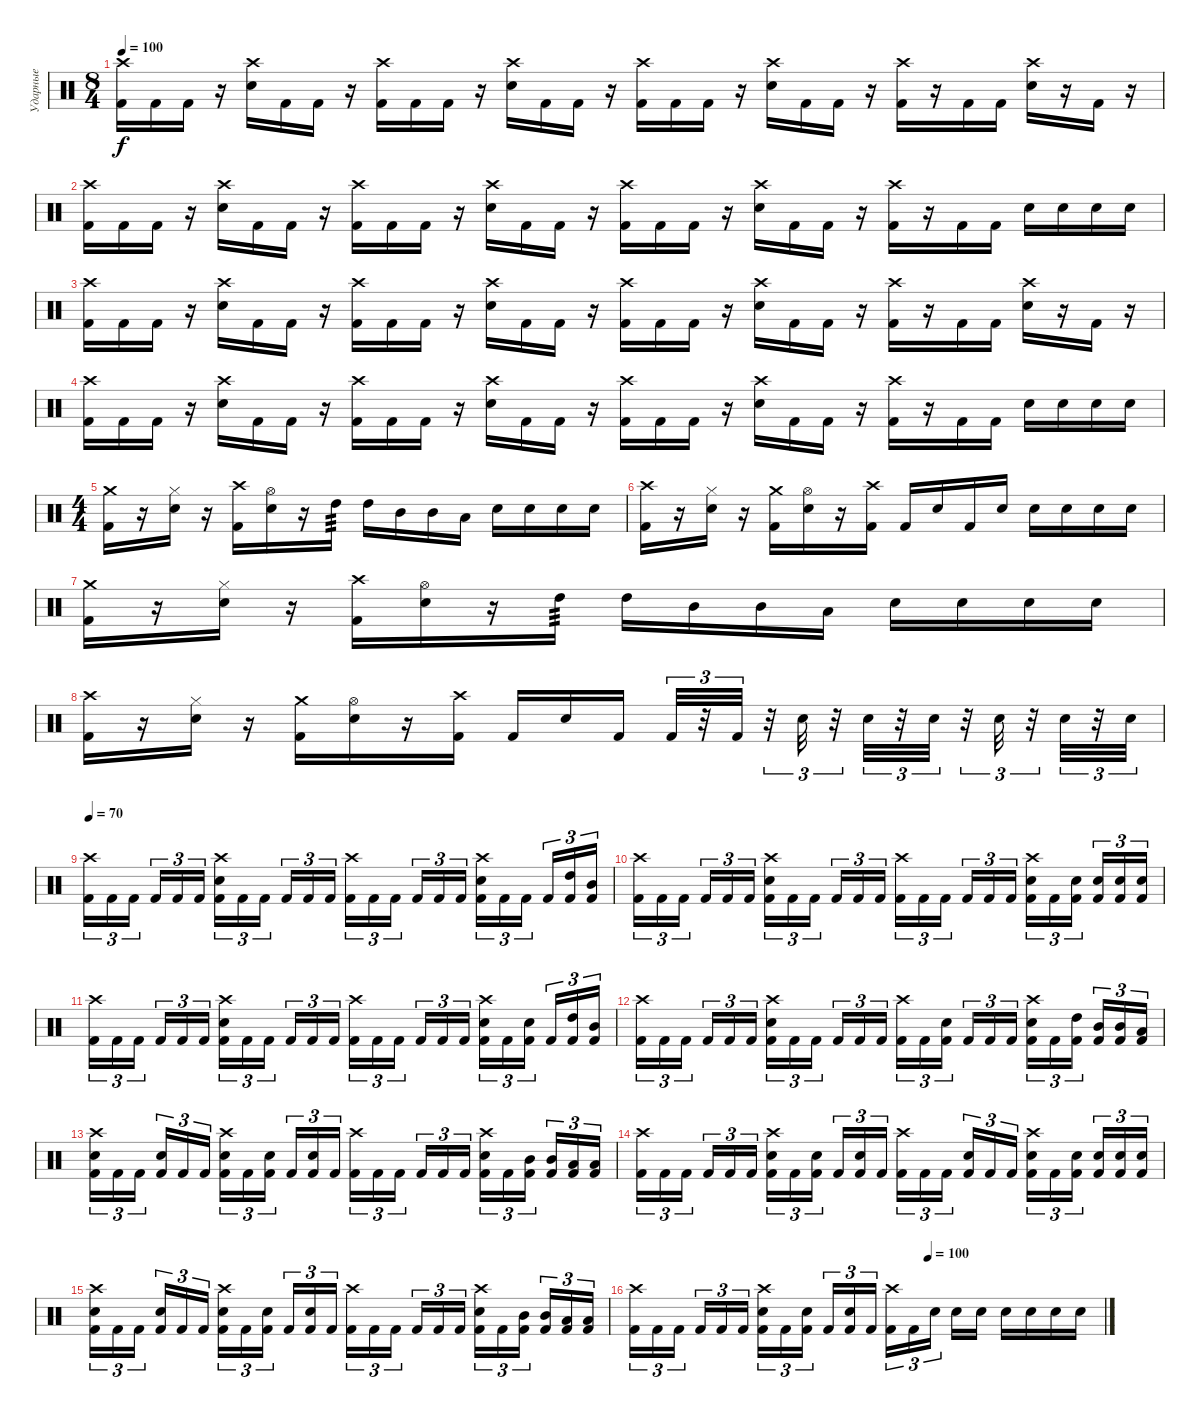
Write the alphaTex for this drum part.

\track ("Ударные" "Ударные") {instrument percussion}
\staff {score}
\articulation defaults
\ts (8 4)
\tempo 100
\clef neutral
\ks c
("Crash high (hit)" "Kick (hit) 2").16{dy f} "Kick (hit) 2".16 "Kick (hit) 2".16 r.16 ("Crash high (hit)" "Electric Snare (hit)").16 "Kick (hit) 2".16 "Kick (hit) 2".16 r.16 ("Crash high (hit)" "Kick (hit) 2").16 "Kick (hit) 2".16 "Kick (hit) 2".16 r.16 ("Crash high (hit)" "Electric Snare (hit)").16 "Kick (hit) 2".16 "Kick (hit) 2".16 r.16 ("Crash high (hit)" "Kick (hit) 2").16 "Kick (hit) 2".16 "Kick (hit) 2".16 r.16 ("Crash high (hit)" "Electric Snare (hit)").16 "Kick (hit) 2".16 "Kick (hit) 2".16 r.16 ("Crash high (hit)" "Kick (hit) 2").16 r.16 "Kick (hit) 2".16 "Kick (hit) 2".16 ("Crash high (hit)" "Electric Snare (hit)").16 r.16 "Kick (hit) 2".16 r.16 |
("Crash high (hit)" "Kick (hit) 2").16 "Kick (hit) 2".16 "Kick (hit) 2".16 r.16 ("Crash high (hit)" "Electric Snare (hit)").16 "Kick (hit) 2".16 "Kick (hit) 2".16 r.16 ("Crash high (hit)" "Kick (hit) 2").16 "Kick (hit) 2".16 "Kick (hit) 2".16 r.16 ("Crash high (hit)" "Electric Snare (hit)").16 "Kick (hit) 2".16 "Kick (hit) 2".16 r.16 ("Crash high (hit)" "Kick (hit) 2").16 "Kick (hit) 2".16 "Kick (hit) 2".16 r.16 ("Crash high (hit)" "Electric Snare (hit)").16 "Kick (hit) 2".16 "Kick (hit) 2".16 r.16 ("Crash high (hit)" "Kick (hit) 2").16 r.16 "Kick (hit) 2".16 "Kick (hit) 2".16 "Electric Snare (hit)".16 "Electric Snare (hit)".16 "Electric Snare (hit)".16 "Electric Snare (hit)".16 |
("Crash high (hit)" "Kick (hit) 2").16 "Kick (hit) 2".16 "Kick (hit) 2".16 r.16 ("Crash high (hit)" "Electric Snare (hit)").16 "Kick (hit) 2".16 "Kick (hit) 2".16 r.16 ("Crash high (hit)" "Kick (hit) 2").16 "Kick (hit) 2".16 "Kick (hit) 2".16 r.16 ("Crash high (hit)" "Electric Snare (hit)").16 "Kick (hit) 2".16 "Kick (hit) 2".16 r.16 ("Crash high (hit)" "Kick (hit) 2").16 "Kick (hit) 2".16 "Kick (hit) 2".16 r.16 ("Crash high (hit)" "Electric Snare (hit)").16 "Kick (hit) 2".16 "Kick (hit) 2".16 r.16 ("Crash high (hit)" "Kick (hit) 2").16 r.16 "Kick (hit) 2".16 "Kick (hit) 2".16 ("Crash high (hit)" "Electric Snare (hit)").16 r.16 "Kick (hit) 2".16 r.16 |
("Crash high (hit)" "Kick (hit) 2").16 "Kick (hit) 2".16 "Kick (hit) 2".16 r.16 ("Crash high (hit)" "Electric Snare (hit)").16 "Kick (hit) 2".16 "Kick (hit) 2".16 r.16 ("Crash high (hit)" "Kick (hit) 2").16 "Kick (hit) 2".16 "Kick (hit) 2".16 r.16 ("Crash high (hit)" "Electric Snare (hit)").16 "Kick (hit) 2".16 "Kick (hit) 2".16 r.16 ("Crash high (hit)" "Kick (hit) 2").16 "Kick (hit) 2".16 "Kick (hit) 2".16 r.16 ("Crash high (hit)" "Electric Snare (hit)").16 "Kick (hit) 2".16 "Kick (hit) 2".16 r.16 ("Crash high (hit)" "Kick (hit) 2").16 r.16 "Kick (hit) 2".16 "Kick (hit) 2".16 "Electric Snare (hit)".16 "Electric Snare (hit)".16 "Electric Snare (hit)".16 "Electric Snare (hit)".16 |
\ts (4 4)
("Crash medium (hit)" "Kick (hit) 2").16 r.16 ("Hi-Hat (closed)" "Electric Snare (hit)").16 r.16 ("Crash high (hit)" "Kick (hit) 2").16 ("Hi-Hat (open)" "Electric Snare (hit)").16 r.16 "High Tom (hit)".16{tp 3} "High Tom (hit)".16 "Mid Tom (hit)".16 "Mid Tom (hit)".16 "Low Tom (hit)".16 "Electric Snare (hit)".16 "Electric Snare (hit)".16 "Electric Snare (hit)".16 "Electric Snare (hit)".16 |
("Crash high (hit)" "Kick (hit) 2").16 r.16 ("Hi-Hat (closed)" "Electric Snare (hit)").16 r.16 ("Crash medium (hit)" "Kick (hit) 2").16 ("Hi-Hat (open)" "Electric Snare (hit)").16 r.16 ("Crash high (hit)" "Kick (hit) 2").16 "Kick (hit) 2".16 "Electric Snare (hit)".16 "Kick (hit) 2".16 "Electric Snare (hit)".16 "Electric Snare (hit)".16 "Electric Snare (hit)".16 "Electric Snare (hit)".16 "Electric Snare (hit)".16 |
("Crash medium (hit)" "Kick (hit) 2").16 r.16 ("Hi-Hat (closed)" "Electric Snare (hit)").16 r.16 ("Crash high (hit)" "Kick (hit) 2").16 ("Hi-Hat (open)" "Electric Snare (hit)").16 r.16 "High Tom (hit)".16{tp 3} "High Tom (hit)".16 "Mid Tom (hit)".16 "Mid Tom (hit)".16 "Low Tom (hit)".16 "Electric Snare (hit)".16 "Electric Snare (hit)".16 "Electric Snare (hit)".16 "Electric Snare (hit)".16 |
("Crash high (hit)" "Kick (hit) 2").16 r.16 ("Hi-Hat (closed)" "Electric Snare (hit)").16 r.16 ("Crash medium (hit)" "Kick (hit) 2").16 ("Hi-Hat (open)" "Electric Snare (hit)").16 r.16 ("Crash high (hit)" "Kick (hit) 2").16 "Kick (hit) 2".16 "Electric Snare (hit)".16 "Kick (hit) 2".16{beam splitsecondary} "Kick (hit) 2".32{tu (3 2)} r.32{tu (3 2)} "Kick (hit) 2".32{tu (3 2)} r.32{tu (3 2)} "Electric Snare (hit)".32{tu (3 2)} r.32{tu (3 2)} "Electric Snare (hit)".32{tu (3 2)} r.32{tu (3 2)} "Electric Snare (hit)".32{tu (3 2)} r.32{tu (3 2)} "Electric Snare (hit)".32{tu (3 2)} r.32{tu (3 2)} "Electric Snare (hit)".32{tu (3 2)} r.32{tu (3 2)} "Electric Snare (hit)".32{tu (3 2)} |
\tempo 70
("Crash high (hit)" "Kick (hit) 2").16{tu (3 2)} "Kick (hit) 2".16{tu (3 2)} "Kick (hit) 2".16{tu (3 2) beam splitsecondary} "Kick (hit) 2".16{tu (3 2)} "Kick (hit) 2".16{tu (3 2)} "Kick (hit) 2".16{tu (3 2)} ("Crash high (hit)" "Electric Snare (hit)" "Kick (hit) 2").16{tu (3 2)} "Kick (hit) 2".16{tu (3 2)} "Kick (hit) 2".16{tu (3 2) beam splitsecondary} "Kick (hit) 2".16{tu (3 2)} "Kick (hit) 2".16{tu (3 2)} "Kick (hit) 2".16{tu (3 2)} ("Crash high (hit)" "Kick (hit) 2").16{tu (3 2)} "Kick (hit) 2".16{tu (3 2)} "Kick (hit) 2".16{tu (3 2) beam splitsecondary} "Kick (hit) 2".16{tu (3 2)} "Kick (hit) 2".16{tu (3 2)} "Kick (hit) 2".16{tu (3 2)} ("Crash high (hit)" "Electric Snare (hit)" "Kick (hit) 2").16{tu (3 2)} "Kick (hit) 2".16{tu (3 2)} "Kick (hit) 2".16{tu (3 2) beam splitsecondary} "Kick (hit) 2".16{tu (3 2)} ("High Tom (hit)" "Kick (hit) 2").16{tu (3 2)} ("Mid Tom (hit)" "Kick (hit) 2").16{tu (3 2)} |
("Crash high (hit)" "Kick (hit) 2").16{tu (3 2)} "Kick (hit) 2".16{tu (3 2)} "Kick (hit) 2".16{tu (3 2) beam splitsecondary} "Kick (hit) 2".16{tu (3 2)} "Kick (hit) 2".16{tu (3 2)} "Kick (hit) 2".16{tu (3 2)} ("Crash high (hit)" "Electric Snare (hit)" "Kick (hit) 2").16{tu (3 2)} "Kick (hit) 2".16{tu (3 2)} "Kick (hit) 2".16{tu (3 2) beam splitsecondary} "Kick (hit) 2".16{tu (3 2)} "Kick (hit) 2".16{tu (3 2)} "Kick (hit) 2".16{tu (3 2)} ("Crash high (hit)" "Kick (hit) 2").16{tu (3 2)} "Kick (hit) 2".16{tu (3 2)} "Kick (hit) 2".16{tu (3 2) beam splitsecondary} "Kick (hit) 2".16{tu (3 2)} "Kick (hit) 2".16{tu (3 2)} "Kick (hit) 2".16{tu (3 2)} ("Crash high (hit)" "Electric Snare (hit)" "Kick (hit) 2").16{tu (3 2)} "Kick (hit) 2".16{tu (3 2)} ("Electric Snare (hit)" "Kick (hit) 2").16{tu (3 2) beam splitsecondary} ("Electric Snare (hit)" "Kick (hit) 2").16{tu (3 2)} ("Electric Snare (hit)" "Kick (hit) 2").16{tu (3 2)} ("Electric Snare (hit)" "Kick (hit) 2").16{tu (3 2)} |
("Crash high (hit)" "Kick (hit) 2").16{tu (3 2)} "Kick (hit) 2".16{tu (3 2)} "Kick (hit) 2".16{tu (3 2) beam splitsecondary} "Kick (hit) 2".16{tu (3 2)} "Kick (hit) 2".16{tu (3 2)} "Kick (hit) 2".16{tu (3 2)} ("Crash high (hit)" "Electric Snare (hit)" "Kick (hit) 2").16{tu (3 2)} "Kick (hit) 2".16{tu (3 2)} "Kick (hit) 2".16{tu (3 2) beam splitsecondary} "Kick (hit) 2".16{tu (3 2)} "Kick (hit) 2".16{tu (3 2)} "Kick (hit) 2".16{tu (3 2)} ("Crash high (hit)" "Kick (hit) 2").16{tu (3 2)} "Kick (hit) 2".16{tu (3 2)} "Kick (hit) 2".16{tu (3 2) beam splitsecondary} "Kick (hit) 2".16{tu (3 2)} "Kick (hit) 2".16{tu (3 2)} "Kick (hit) 2".16{tu (3 2)} ("Crash high (hit)" "Electric Snare (hit)" "Kick (hit) 2").16{tu (3 2)} "Kick (hit) 2".16{tu (3 2)} ("Electric Snare (hit)" "Kick (hit) 2").16{tu (3 2) beam splitsecondary} "Kick (hit) 2".16{tu (3 2)} ("High Tom (hit)" "Kick (hit) 2").16{tu (3 2)} ("Mid Tom (hit)" "Kick (hit) 2").16{tu (3 2)} |
("Crash high (hit)" "Kick (hit) 2").16{tu (3 2)} "Kick (hit) 2".16{tu (3 2)} "Kick (hit) 2".16{tu (3 2) beam splitsecondary} "Kick (hit) 2".16{tu (3 2)} "Kick (hit) 2".16{tu (3 2)} "Kick (hit) 2".16{tu (3 2)} ("Crash high (hit)" "Electric Snare (hit)" "Kick (hit) 2").16{tu (3 2)} "Kick (hit) 2".16{tu (3 2)} "Kick (hit) 2".16{tu (3 2) beam splitsecondary} "Kick (hit) 2".16{tu (3 2)} "Kick (hit) 2".16{tu (3 2)} "Kick (hit) 2".16{tu (3 2)} ("Crash high (hit)" "Kick (hit) 2").16{tu (3 2)} "Kick (hit) 2".16{tu (3 2)} ("Electric Snare (hit)" "Kick (hit) 2").16{tu (3 2) beam splitsecondary} "Kick (hit) 2".16{tu (3 2)} "Kick (hit) 2".16{tu (3 2)} "Kick (hit) 2".16{tu (3 2)} ("Crash high (hit)" "Electric Snare (hit)" "Kick (hit) 2").16{tu (3 2)} "Kick (hit) 2".16{tu (3 2)} ("High Tom (hit)" "Kick (hit) 2").16{tu (3 2) beam splitsecondary} ("Mid Tom (hit)" "Kick (hit) 2").16{tu (3 2)} ("Mid Tom (hit)" "Kick (hit) 2").16{tu (3 2)} ("Low Tom (hit)" "Kick (hit) 2").16{tu (3 2)} |
("Crash high (hit)" "Electric Snare (hit)" "Kick (hit) 2").16{tu (3 2)} "Kick (hit) 2".16{tu (3 2)} "Kick (hit) 2".16{tu (3 2) beam splitsecondary} ("Electric Snare (hit)" "Kick (hit) 2").16{tu (3 2)} "Kick (hit) 2".16{tu (3 2)} "Kick (hit) 2".16{tu (3 2)} ("Crash high (hit)" "Electric Snare (hit)" "Kick (hit) 2").16{tu (3 2)} "Kick (hit) 2".16{tu (3 2)} ("Electric Snare (hit)" "Kick (hit) 2").16{tu (3 2) beam splitsecondary} "Kick (hit) 2".16{tu (3 2)} ("Electric Snare (hit)" "Kick (hit) 2").16{tu (3 2)} "Kick (hit) 2".16{tu (3 2)} ("Crash high (hit)" "Kick (hit) 2").16{tu (3 2)} "Kick (hit) 2".16{tu (3 2)} "Kick (hit) 2".16{tu (3 2) beam splitsecondary} "Kick (hit) 2".16{tu (3 2)} "Kick (hit) 2".16{tu (3 2)} "Kick (hit) 2".16{tu (3 2)} ("Crash high (hit)" "Electric Snare (hit)" "Kick (hit) 2").16{tu (3 2)} "Kick (hit) 2".16{tu (3 2)} ("Mid Tom (hit)" "Kick (hit) 2").16{tu (3 2) beam splitsecondary} ("Mid Tom (hit)" "Kick (hit) 2").16{tu (3 2)} ("Low Tom (hit)" "Kick (hit) 2").16{tu (3 2)} ("Low Tom (hit)" "Kick (hit) 2").16{tu (3 2)} |
("Crash high (hit)" "Kick (hit) 2").16{tu (3 2)} "Kick (hit) 2".16{tu (3 2)} "Kick (hit) 2".16{tu (3 2) beam splitsecondary} "Kick (hit) 2".16{tu (3 2)} "Kick (hit) 2".16{tu (3 2)} "Kick (hit) 2".16{tu (3 2)} ("Crash high (hit)" "Electric Snare (hit)" "Kick (hit) 2").16{tu (3 2)} "Kick (hit) 2".16{tu (3 2)} ("Electric Snare (hit)" "Kick (hit) 2").16{tu (3 2) beam splitsecondary} "Kick (hit) 2".16{tu (3 2)} ("Electric Snare (hit)" "Kick (hit) 2").16{tu (3 2)} "Kick (hit) 2".16{tu (3 2)} ("Crash high (hit)" "Kick (hit) 2").16{tu (3 2)} "Kick (hit) 2".16{tu (3 2)} "Kick (hit) 2".16{tu (3 2) beam splitsecondary} ("Electric Snare (hit)" "Kick (hit) 2").16{tu (3 2)} "Kick (hit) 2".16{tu (3 2)} "Kick (hit) 2".16{tu (3 2)} ("Crash high (hit)" "Electric Snare (hit)" "Kick (hit) 2").16{tu (3 2)} "Kick (hit) 2".16{tu (3 2)} ("Electric Snare (hit)" "Kick (hit) 2").16{tu (3 2) beam splitsecondary} ("Electric Snare (hit)" "Kick (hit) 2").16{tu (3 2)} ("Electric Snare (hit)" "Kick (hit) 2").16{tu (3 2)} ("Electric Snare (hit)" "Kick (hit) 2").16{tu (3 2)} |
("Crash high (hit)" "Electric Snare (hit)" "Kick (hit) 2").16{tu (3 2)} "Kick (hit) 2".16{tu (3 2)} "Kick (hit) 2".16{tu (3 2) beam splitsecondary} ("Electric Snare (hit)" "Kick (hit) 2").16{tu (3 2)} "Kick (hit) 2".16{tu (3 2)} "Kick (hit) 2".16{tu (3 2)} ("Crash high (hit)" "Electric Snare (hit)" "Kick (hit) 2").16{tu (3 2)} "Kick (hit) 2".16{tu (3 2)} ("Electric Snare (hit)" "Kick (hit) 2").16{tu (3 2) beam splitsecondary} "Kick (hit) 2".16{tu (3 2)} ("Electric Snare (hit)" "Kick (hit) 2").16{tu (3 2)} "Kick (hit) 2".16{tu (3 2)} ("Crash high (hit)" "Kick (hit) 2").16{tu (3 2)} "Kick (hit) 2".16{tu (3 2)} "Kick (hit) 2".16{tu (3 2) beam splitsecondary} "Kick (hit) 2".16{tu (3 2)} "Kick (hit) 2".16{tu (3 2)} "Kick (hit) 2".16{tu (3 2)} ("Crash high (hit)" "Electric Snare (hit)" "Kick (hit) 2").16{tu (3 2)} "Kick (hit) 2".16{tu (3 2)} ("Mid Tom (hit)" "Kick (hit) 2").16{tu (3 2) beam splitsecondary} ("Mid Tom (hit)" "Kick (hit) 2").16{tu (3 2)} ("Low Tom (hit)" "Kick (hit) 2").16{tu (3 2)} ("Low Tom (hit)" "Kick (hit) 2").16{tu (3 2)} |
\tempo (100 0.625)
("Crash high (hit)" "Kick (hit) 2").16{tu (3 2)} "Kick (hit) 2".16{tu (3 2)} "Kick (hit) 2".16{tu (3 2) beam splitsecondary} "Kick (hit) 2".16{tu (3 2)} "Kick (hit) 2".16{tu (3 2)} "Kick (hit) 2".16{tu (3 2)} ("Crash high (hit)" "Electric Snare (hit)" "Kick (hit) 2").16{tu (3 2)} "Kick (hit) 2".16{tu (3 2)} ("Electric Snare (hit)" "Kick (hit) 2").16{tu (3 2) beam splitsecondary} "Kick (hit) 2".16{tu (3 2)} ("Electric Snare (hit)" "Kick (hit) 2").16{tu (3 2)} "Kick (hit) 2".16{tu (3 2)} ("Crash high (hit)" "Kick (hit) 2").16{tu (3 2)} "Kick (hit) 2".16{tu (3 2)} "Electric Snare (hit)".16{tu (3 2) beam splitsecondary} "Electric Snare (hit)".16 "Electric Snare (hit)".16 "Electric Snare (hit)".16 "Electric Snare (hit)".16 "Electric Snare (hit)".16 "Electric Snare (hit)".16
